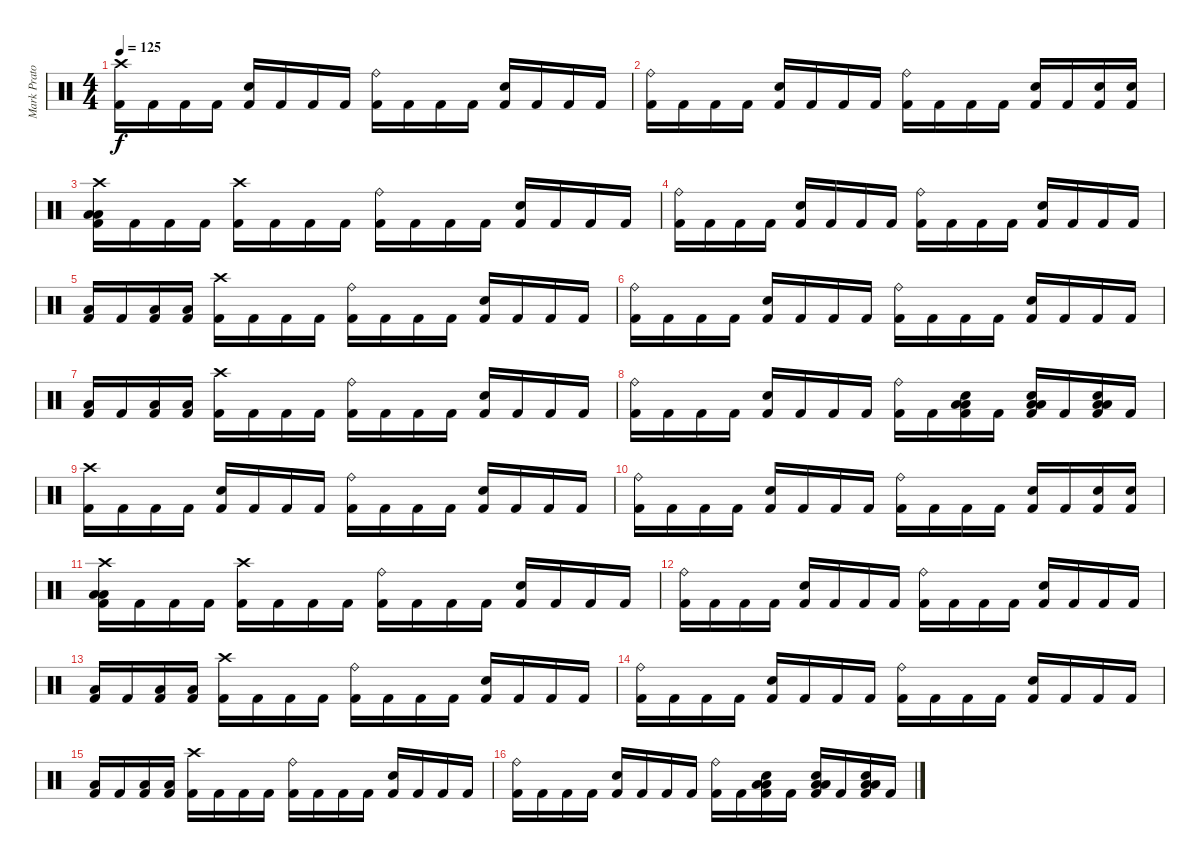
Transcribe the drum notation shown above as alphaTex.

\track ("Mark Prator" "Mark Prato") {instrument percussion}
\staff {score}
\articulation defaults
\ts (4 4)
\tempo 125
\clef neutral
\ks c
("Crash high (hit)" "Kick (hit) 2").16{dy f} "Kick (hit) 2".16 "Kick (hit) 2".16 "Kick (hit) 2".16 ("Electric Snare (hit)" "Kick (hit) 2").16 "Kick (hit) 2".16 "Kick (hit) 2".16 "Kick (hit) 2".16 ("Ride (bell)" "Kick (hit) 2").16 "Kick (hit) 2".16 "Kick (hit) 2".16 "Kick (hit) 2".16 ("Electric Snare (hit)" "Kick (hit) 2").16 "Kick (hit) 2".16 "Kick (hit) 2".16 "Kick (hit) 2".16 |
("Ride (bell)" "Kick (hit) 2").16 "Kick (hit) 2".16 "Kick (hit) 2".16 "Kick (hit) 2".16 ("Electric Snare (hit)" "Kick (hit) 2").16 "Kick (hit) 2".16 "Kick (hit) 2".16 "Kick (hit) 2".16 ("Ride (bell)" "Kick (hit) 2").16 "Kick (hit) 2".16 "Kick (hit) 2".16 "Kick (hit) 2".16 ("Electric Snare (hit)" "Kick (hit) 2").16 "Kick (hit) 2".16 ("Electric Snare (hit)" "Kick (hit) 2").16 ("Electric Snare (hit)" "Kick (hit) 2").16 |
("Crash high (hit)" "Low Floor Tom (hit)" "Low Floor Tom (hit)" "Kick (hit) 2").16 "Kick (hit) 2".16 "Kick (hit) 2".16 "Kick (hit) 2".16 ("Crash high (hit)" "Kick (hit) 2").16 "Kick (hit) 2".16 "Kick (hit) 2".16 "Kick (hit) 2".16 ("Ride (bell)" "Kick (hit) 2").16 "Kick (hit) 2".16 "Kick (hit) 2".16 "Kick (hit) 2".16 ("Electric Snare (hit)" "Kick (hit) 2").16 "Kick (hit) 2".16 "Kick (hit) 2".16 "Kick (hit) 2".16 |
("Ride (bell)" "Kick (hit) 2").16 "Kick (hit) 2".16 "Kick (hit) 2".16 "Kick (hit) 2".16 ("Electric Snare (hit)" "Kick (hit) 2").16 "Kick (hit) 2".16 "Kick (hit) 2".16 "Kick (hit) 2".16 ("Ride (bell)" "Kick (hit) 2").16 "Kick (hit) 2".16 "Kick (hit) 2".16 "Kick (hit) 2".16 ("Electric Snare (hit)" "Kick (hit) 2").16 "Kick (hit) 2".16 "Kick (hit) 2".16 "Kick (hit) 2".16 |
("Low Tom (hit)" "Kick (hit) 2").16 "Kick (hit) 2".16 ("Low Tom (hit)" "Kick (hit) 2").16 ("Low Tom (hit)" "Kick (hit) 2").16 ("Crash high (hit)" "Kick (hit) 2").16 "Kick (hit) 2".16 "Kick (hit) 2".16 "Kick (hit) 2".16 ("Ride (bell)" "Kick (hit) 2").16 "Kick (hit) 2".16 "Kick (hit) 2".16 "Kick (hit) 2".16 ("Electric Snare (hit)" "Kick (hit) 2").16 "Kick (hit) 2".16 "Kick (hit) 2".16 "Kick (hit) 2".16 |
("Ride (bell)" "Kick (hit) 2").16 "Kick (hit) 2".16 "Kick (hit) 2".16 "Kick (hit) 2".16 ("Electric Snare (hit)" "Kick (hit) 2").16 "Kick (hit) 2".16 "Kick (hit) 2".16 "Kick (hit) 2".16 ("Ride (bell)" "Kick (hit) 2").16 "Kick (hit) 2".16 "Kick (hit) 2".16 "Kick (hit) 2".16 ("Electric Snare (hit)" "Kick (hit) 2").16 "Kick (hit) 2".16 "Kick (hit) 2".16 "Kick (hit) 2".16 |
("Low Tom (hit)" "Kick (hit) 2").16 "Kick (hit) 2".16 ("Low Tom (hit)" "Kick (hit) 2").16 ("Low Tom (hit)" "Kick (hit) 2").16 ("Crash high (hit)" "Kick (hit) 2").16 "Kick (hit) 2".16 "Kick (hit) 2".16 "Kick (hit) 2".16 ("Ride (bell)" "Kick (hit) 2").16 "Kick (hit) 2".16 "Kick (hit) 2".16 "Kick (hit) 2".16 ("Electric Snare (hit)" "Kick (hit) 2").16 "Kick (hit) 2".16 "Kick (hit) 2".16 "Kick (hit) 2".16 |
("Ride (bell)" "Kick (hit) 2").16 "Kick (hit) 2".16 "Kick (hit) 2".16 "Kick (hit) 2".16 ("Electric Snare (hit)" "Kick (hit) 2").16 "Kick (hit) 2".16 "Kick (hit) 2".16 "Kick (hit) 2".16 ("Ride (bell)" "Kick (hit) 2").16 "Kick (hit) 2".16 ("Low Floor Tom (hit)" "Low Floor Tom (hit)" "Electric Snare (hit)" "Kick (hit) 2").16 "Kick (hit) 2".16 ("Low Floor Tom (hit)" "Low Floor Tom (hit)" "Electric Snare (hit)" "Kick (hit) 2").16 "Kick (hit) 2".16 ("Low Floor Tom (hit)" "Low Floor Tom (hit)" "Electric Snare (hit)" "Kick (hit) 2").16 "Kick (hit) 2".16 |
("Crash high (hit)" "Kick (hit) 2").16{volume 11} "Kick (hit) 2".16 "Kick (hit) 2".16 "Kick (hit) 2".16 ("Electric Snare (hit)" "Kick (hit) 2").16 "Kick (hit) 2".16 "Kick (hit) 2".16 "Kick (hit) 2".16 ("Ride (bell)" "Kick (hit) 2").16{volume 9} "Kick (hit) 2".16 "Kick (hit) 2".16 "Kick (hit) 2".16 ("Electric Snare (hit)" "Kick (hit) 2").16 "Kick (hit) 2".16 "Kick (hit) 2".16 "Kick (hit) 2".16 |
("Ride (bell)" "Kick (hit) 2").16 "Kick (hit) 2".16 "Kick (hit) 2".16 "Kick (hit) 2".16 ("Electric Snare (hit)" "Kick (hit) 2").16{volume 7} "Kick (hit) 2".16 "Kick (hit) 2".16 "Kick (hit) 2".16 ("Ride (bell)" "Kick (hit) 2").16 "Kick (hit) 2".16 "Kick (hit) 2".16 "Kick (hit) 2".16 ("Electric Snare (hit)" "Kick (hit) 2").16{volume 6} "Kick (hit) 2".16 ("Electric Snare (hit)" "Kick (hit) 2").16 ("Electric Snare (hit)" "Kick (hit) 2").16 |
("Crash high (hit)" "Low Floor Tom (hit)" "Low Floor Tom (hit)" "Kick (hit) 2").16 "Kick (hit) 2".16 "Kick (hit) 2".16 "Kick (hit) 2".16{volume 5} ("Crash high (hit)" "Kick (hit) 2").16 "Kick (hit) 2".16 "Kick (hit) 2".16 "Kick (hit) 2".16 ("Ride (bell)" "Kick (hit) 2").16 "Kick (hit) 2".16 "Kick (hit) 2".16{volume 4} "Kick (hit) 2".16 ("Electric Snare (hit)" "Kick (hit) 2").16 "Kick (hit) 2".16 "Kick (hit) 2".16 "Kick (hit) 2".16 |
("Ride (bell)" "Kick (hit) 2").16 "Kick (hit) 2".16 "Kick (hit) 2".16{volume 3} "Kick (hit) 2".16 ("Electric Snare (hit)" "Kick (hit) 2").16 "Kick (hit) 2".16 "Kick (hit) 2".16 "Kick (hit) 2".16 ("Ride (bell)" "Kick (hit) 2").16 "Kick (hit) 2".16 "Kick (hit) 2".16 "Kick (hit) 2".16 ("Electric Snare (hit)" "Kick (hit) 2").16{volume 2} "Kick (hit) 2".16 "Kick (hit) 2".16 "Kick (hit) 2".16 |
("Low Tom (hit)" "Kick (hit) 2").16 "Kick (hit) 2".16 ("Low Tom (hit)" "Kick (hit) 2").16 ("Low Tom (hit)" "Kick (hit) 2").16{volume 1} ("Crash high (hit)" "Kick (hit) 2").16 "Kick (hit) 2".16 "Kick (hit) 2".16 "Kick (hit) 2".16 ("Ride (bell)" "Kick (hit) 2").16 "Kick (hit) 2".16 "Kick (hit) 2".16 "Kick (hit) 2".16 ("Electric Snare (hit)" "Kick (hit) 2").16 "Kick (hit) 2".16 "Kick (hit) 2".16 "Kick (hit) 2".16 |
("Ride (bell)" "Kick (hit) 2").16 "Kick (hit) 2".16 "Kick (hit) 2".16 "Kick (hit) 2".16 ("Electric Snare (hit)" "Kick (hit) 2").16 "Kick (hit) 2".16 "Kick (hit) 2".16 "Kick (hit) 2".16 ("Ride (bell)" "Kick (hit) 2").16 "Kick (hit) 2".16 "Kick (hit) 2".16 "Kick (hit) 2".16 ("Electric Snare (hit)" "Kick (hit) 2").16 "Kick (hit) 2".16 "Kick (hit) 2".16 "Kick (hit) 2".16 |
("Low Tom (hit)" "Kick (hit) 2").16 "Kick (hit) 2".16 ("Low Tom (hit)" "Kick (hit) 2").16 ("Low Tom (hit)" "Kick (hit) 2").16 ("Crash high (hit)" "Kick (hit) 2").16 "Kick (hit) 2".16 "Kick (hit) 2".16 "Kick (hit) 2".16 ("Ride (bell)" "Kick (hit) 2").16 "Kick (hit) 2".16 "Kick (hit) 2".16 "Kick (hit) 2".16 ("Electric Snare (hit)" "Kick (hit) 2").16 "Kick (hit) 2".16 "Kick (hit) 2".16 "Kick (hit) 2".16 |
("Ride (bell)" "Kick (hit) 2").16 "Kick (hit) 2".16 "Kick (hit) 2".16 "Kick (hit) 2".16 ("Electric Snare (hit)" "Kick (hit) 2").16 "Kick (hit) 2".16 "Kick (hit) 2".16 "Kick (hit) 2".16 ("Ride (bell)" "Kick (hit) 2").16 "Kick (hit) 2".16 ("Low Floor Tom (hit)" "Low Floor Tom (hit)" "Electric Snare (hit)" "Kick (hit) 2").16 "Kick (hit) 2".16 ("Low Floor Tom (hit)" "Low Floor Tom (hit)" "Electric Snare (hit)" "Kick (hit) 2").16 "Kick (hit) 2".16 ("Low Floor Tom (hit)" "Low Floor Tom (hit)" "Electric Snare (hit)" "Kick (hit) 2").16 "Kick (hit) 2".16
